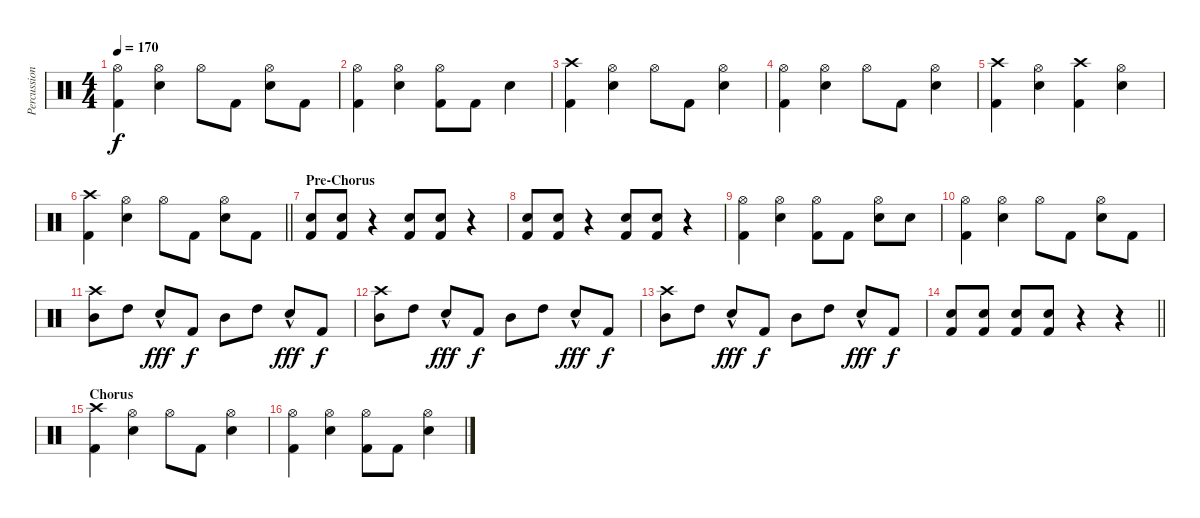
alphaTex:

\track ("Percussion" "Percussion") {instrument percussion}
\staff {score}
\articulation defaults
\ts (4 4)
\tempo 170
\clef neutral
\ks c
("Hi-Hat (open)" "Kick (hit) 2").4{dy f} ("Hi-Hat (open)" "Snare (hit) 2").4 "Hi-Hat (open)".8 "Kick (hit) 2".8 ("Hi-Hat (open)" "Snare (hit) 2").8 "Kick (hit) 2".8 |
("Hi-Hat (open)" "Kick (hit) 2").4 ("Hi-Hat (open)" "Snare (hit) 2").4 ("Hi-Hat (open)" "Kick (hit) 2").8 "Kick (hit) 2".8 "Snare (hit) 2".4 |
("Crash high (hit)" "Kick (hit) 2").4 ("Hi-Hat (open)" "Snare (hit) 2").4 "Hi-Hat (open)".8 "Kick (hit) 2".8 ("Hi-Hat (open)" "Snare (hit) 2").4 |
("Hi-Hat (open)" "Kick (hit) 2").4 ("Hi-Hat (open)" "Snare (hit) 2").4 "Hi-Hat (open)".8 "Kick (hit) 2".8 ("Hi-Hat (open)" "Snare (hit) 2").4 |
("Crash high (hit)" "Kick (hit) 2").4 ("Hi-Hat (open)" "Snare (hit) 2").4 ("Crash high (hit)" "Kick (hit) 2").4 ("Hi-Hat (open)" "Snare (hit) 2").4 |
\barLineRight lightlight
("Crash high (hit)" "Kick (hit) 2").4 ("Hi-Hat (open)" "Snare (hit) 2").4 "Hi-Hat (open)".8 "Kick (hit) 2".8 ("Hi-Hat (open)" "Snare (hit) 2").8 "Kick (hit) 2".8 |
\section ("" "Pre-Chorus")
("Snare (hit) 2" "Kick (hit) 2").8 ("Snare (hit) 2" "Kick (hit) 2").8 r.4 ("Snare (hit) 2" "Kick (hit) 2").8 ("Snare (hit) 2" "Kick (hit) 2").8 r.4 |
("Snare (hit) 2" "Kick (hit) 2").8 ("Snare (hit) 2" "Kick (hit) 2").8 r.4 ("Snare (hit) 2" "Kick (hit) 2").8 ("Snare (hit) 2" "Kick (hit) 2").8 r.4 |
("Hi-Hat (open)" "Kick (hit) 2").4 ("Hi-Hat (open)" "Snare (hit) 2").4 ("Hi-Hat (open)" "Kick (hit) 2").8 "Kick (hit) 2".8 ("Hi-Hat (open)" "Snare (hit) 2").8 "Snare (hit) 2".8 |
("Hi-Hat (open)" "Kick (hit) 2").4 ("Hi-Hat (open)" "Snare (hit) 2").4 "Hi-Hat (open)".8 "Kick (hit) 2".8 ("Hi-Hat (open)" "Snare (hit) 2").8 "Kick (hit) 2".8 |
("Crash high (hit)" "Mid Tom (hit)").8 "High Tom (hit)".8 "Snare (hit) 2"{hac}.8{dy fff} "Kick (hit) 2".8{dy f} "Mid Tom (hit)".8 "High Tom (hit)".8 "Snare (hit) 2"{hac}.8{dy fff} "Kick (hit) 2".8{dy f} |
("Crash high (hit)" "Mid Tom (hit)").8 "High Tom (hit)".8 "Snare (hit) 2"{hac}.8{dy fff} "Kick (hit) 2".8{dy f} "Mid Tom (hit)".8 "High Tom (hit)".8 "Snare (hit) 2"{hac}.8{dy fff} "Kick (hit) 2".8{dy f} |
("Crash high (hit)" "Mid Tom (hit)").8 "High Tom (hit)".8 "Snare (hit) 2"{hac}.8{dy fff} "Kick (hit) 2".8{dy f} "Mid Tom (hit)".8 "High Tom (hit)".8 "Snare (hit) 2"{hac}.8{dy fff} "Kick (hit) 2".8{dy f} |
\barLineRight lightlight
("Snare (hit) 2" "Kick (hit) 2").8 ("Snare (hit) 2" "Kick (hit) 2").8 ("Snare (hit) 2" "Kick (hit) 2").8 ("Snare (hit) 2" "Kick (hit) 2").8 r.4 r.4 |
\section ("" "Chorus")
("Crash high (hit)" "Kick (hit) 2").4 ("Hi-Hat (open)" "Snare (hit) 2").4 "Hi-Hat (open)".8 "Kick (hit) 2".8 ("Hi-Hat (open)" "Snare (hit) 2").4 |
("Hi-Hat (open)" "Kick (hit) 2").4 ("Hi-Hat (open)" "Snare (hit) 2").4 ("Hi-Hat (open)" "Kick (hit) 2").8 "Kick (hit) 2".8 ("Hi-Hat (open)" "Snare (hit) 2").4
